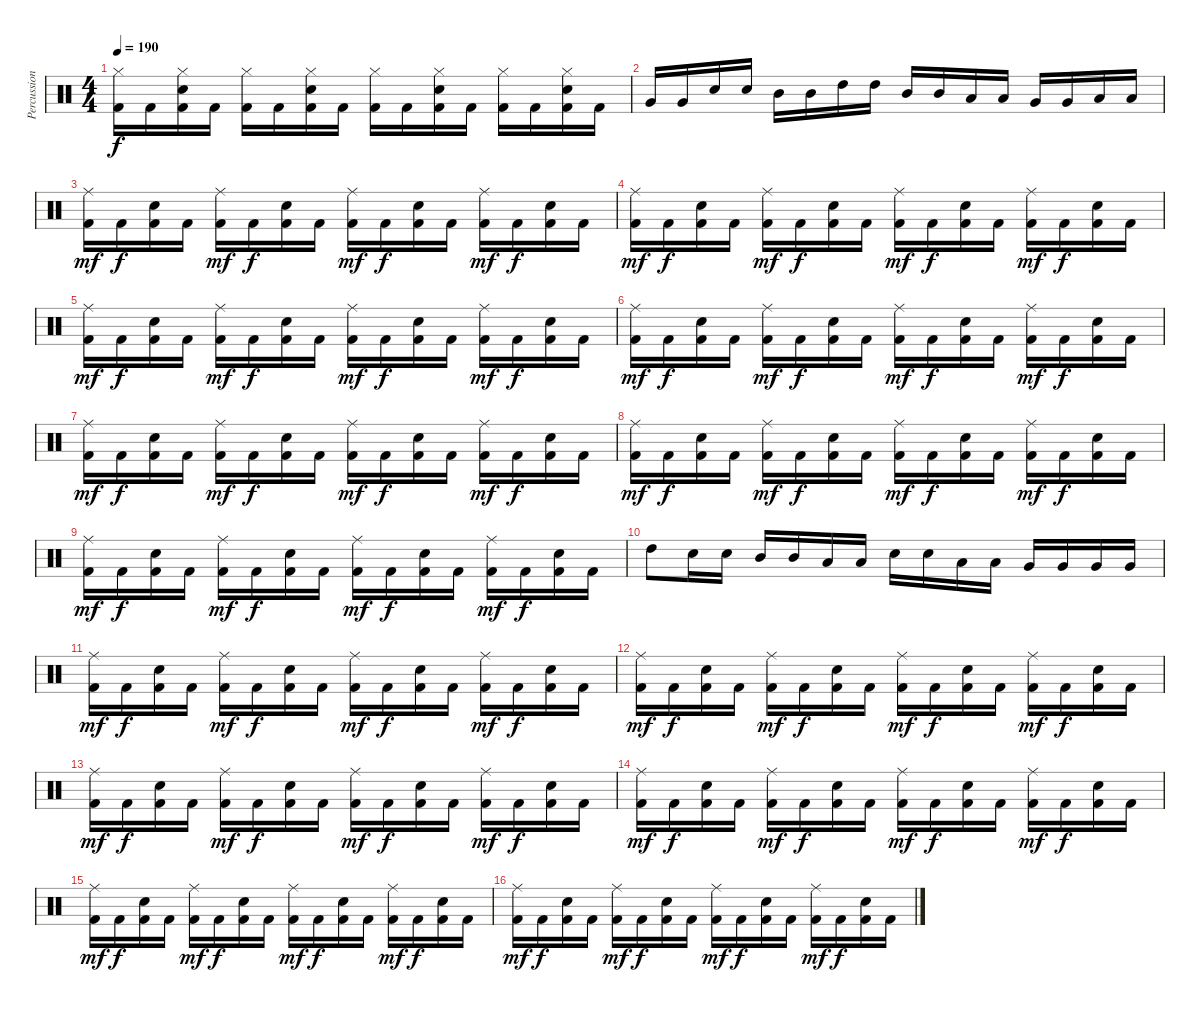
\track ("Percussion" "Percussion") {instrument percussion}
\staff {score}
\articulation defaults
\ts (4 4)
\tempo 190
\clef neutral
\ks c
("Hi-Hat (closed)" "Kick (hit) 2").16{dy f} "Kick (hit) 2".16 ("Hi-Hat (closed)" "Electric Snare (hit)" "Kick (hit) 2").16 "Kick (hit) 2".16 ("Hi-Hat (closed)" "Kick (hit) 2").16 "Kick (hit) 2".16 ("Hi-Hat (closed)" "Electric Snare (hit)" "Kick (hit) 2").16 "Kick (hit) 2".16 ("Hi-Hat (closed)" "Kick (hit) 2").16 "Kick (hit) 2".16 ("Hi-Hat (closed)" "Electric Snare (hit)" "Kick (hit) 2").16 "Kick (hit) 2".16 ("Hi-Hat (closed)" "Kick (hit) 2").16 "Kick (hit) 2".16 ("Hi-Hat (closed)" "Electric Snare (hit)" "Kick (hit) 2").16 "Kick (hit) 2".16 |
"Very Low Tom (hit)".16 "Very Low Tom (hit)".16 "Electric Snare (hit)".16 "Electric Snare (hit)".16 "Mid Tom (hit)".16 "Mid Tom (hit)".16 "High Tom (hit)".16 "High Tom (hit)".16 "Mid Tom (hit)".16 "Mid Tom (hit)".16 "Low Tom (hit)".16 "Low Tom (hit)".16 "Very Low Tom (hit)".16 "Very Low Tom (hit)".16 "Low Floor Tom (hit)".16 "Low Floor Tom (hit)".16 |
("Ride (middle)" "Kick (hit) 2").16{dy mf} "Kick (hit) 2".16{dy f} ("Electric Snare (hit)" "Kick (hit) 2").16 "Kick (hit) 2".16 ("Ride (middle)" "Kick (hit) 2").16{dy mf} "Kick (hit) 2".16{dy f} ("Electric Snare (hit)" "Kick (hit) 2").16 "Kick (hit) 2".16 ("Ride (middle)" "Kick (hit) 2").16{dy mf} "Kick (hit) 2".16{dy f} ("Electric Snare (hit)" "Kick (hit) 2").16 "Kick (hit) 2".16 ("Ride (middle)" "Kick (hit) 2").16{dy mf} "Kick (hit) 2".16{dy f} ("Electric Snare (hit)" "Kick (hit) 2").16 "Kick (hit) 2".16 |
("Ride (middle)" "Kick (hit) 2").16{dy mf} "Kick (hit) 2".16{dy f} ("Electric Snare (hit)" "Kick (hit) 2").16 "Kick (hit) 2".16 ("Ride (middle)" "Kick (hit) 2").16{dy mf} "Kick (hit) 2".16{dy f} ("Electric Snare (hit)" "Kick (hit) 2").16 "Kick (hit) 2".16 ("Ride (middle)" "Kick (hit) 2").16{dy mf} "Kick (hit) 2".16{dy f} ("Electric Snare (hit)" "Kick (hit) 2").16 "Kick (hit) 2".16 ("Ride (middle)" "Kick (hit) 2").16{dy mf} "Kick (hit) 2".16{dy f} ("Electric Snare (hit)" "Kick (hit) 2").16 "Kick (hit) 2".16 |
("Ride (middle)" "Kick (hit) 2").16{dy mf} "Kick (hit) 2".16{dy f} ("Electric Snare (hit)" "Kick (hit) 2").16 "Kick (hit) 2".16 ("Ride (middle)" "Kick (hit) 2").16{dy mf} "Kick (hit) 2".16{dy f} ("Electric Snare (hit)" "Kick (hit) 2").16 "Kick (hit) 2".16 ("Ride (middle)" "Kick (hit) 2").16{dy mf} "Kick (hit) 2".16{dy f} ("Electric Snare (hit)" "Kick (hit) 2").16 "Kick (hit) 2".16 ("Ride (middle)" "Kick (hit) 2").16{dy mf} "Kick (hit) 2".16{dy f} ("Electric Snare (hit)" "Kick (hit) 2").16 "Kick (hit) 2".16 |
("Ride (middle)" "Kick (hit) 2").16{dy mf} "Kick (hit) 2".16{dy f} ("Electric Snare (hit)" "Kick (hit) 2").16 "Kick (hit) 2".16 ("Ride (middle)" "Kick (hit) 2").16{dy mf} "Kick (hit) 2".16{dy f} ("Electric Snare (hit)" "Kick (hit) 2").16 "Kick (hit) 2".16 ("Ride (middle)" "Kick (hit) 2").16{dy mf} "Kick (hit) 2".16{dy f} ("Electric Snare (hit)" "Kick (hit) 2").16 "Kick (hit) 2".16 ("Ride (middle)" "Kick (hit) 2").16{dy mf} "Kick (hit) 2".16{dy f} ("Electric Snare (hit)" "Kick (hit) 2").16 "Kick (hit) 2".16 |
("Ride (middle)" "Kick (hit) 2").16{dy mf} "Kick (hit) 2".16{dy f} ("Electric Snare (hit)" "Kick (hit) 2").16 "Kick (hit) 2".16 ("Ride (middle)" "Kick (hit) 2").16{dy mf} "Kick (hit) 2".16{dy f} ("Electric Snare (hit)" "Kick (hit) 2").16 "Kick (hit) 2".16 ("Ride (middle)" "Kick (hit) 2").16{dy mf} "Kick (hit) 2".16{dy f} ("Electric Snare (hit)" "Kick (hit) 2").16 "Kick (hit) 2".16 ("Ride (middle)" "Kick (hit) 2").16{dy mf} "Kick (hit) 2".16{dy f} ("Electric Snare (hit)" "Kick (hit) 2").16 "Kick (hit) 2".16 |
("Ride (middle)" "Kick (hit) 2").16{dy mf} "Kick (hit) 2".16{dy f} ("Electric Snare (hit)" "Kick (hit) 2").16 "Kick (hit) 2".16 ("Ride (middle)" "Kick (hit) 2").16{dy mf} "Kick (hit) 2".16{dy f} ("Electric Snare (hit)" "Kick (hit) 2").16 "Kick (hit) 2".16 ("Ride (middle)" "Kick (hit) 2").16{dy mf} "Kick (hit) 2".16{dy f} ("Electric Snare (hit)" "Kick (hit) 2").16 "Kick (hit) 2".16 ("Ride (middle)" "Kick (hit) 2").16{dy mf} "Kick (hit) 2".16{dy f} ("Electric Snare (hit)" "Kick (hit) 2").16 "Kick (hit) 2".16 |
("Ride (middle)" "Kick (hit) 2").16{dy mf} "Kick (hit) 2".16{dy f} ("Electric Snare (hit)" "Kick (hit) 2").16 "Kick (hit) 2".16 ("Ride (middle)" "Kick (hit) 2").16{dy mf} "Kick (hit) 2".16{dy f} ("Electric Snare (hit)" "Kick (hit) 2").16 "Kick (hit) 2".16 ("Ride (middle)" "Kick (hit) 2").16{dy mf} "Kick (hit) 2".16{dy f} ("Electric Snare (hit)" "Kick (hit) 2").16 "Kick (hit) 2".16 ("Ride (middle)" "Kick (hit) 2").16{dy mf} "Kick (hit) 2".16{dy f} ("Electric Snare (hit)" "Kick (hit) 2").16 "Kick (hit) 2".16 |
"High Tom (hit)".8 "Electric Snare (hit)".16 "Electric Snare (hit)".16 "Mid Tom (hit)".16 "Mid Tom (hit)".16 "Low Tom (hit)".16 "Low Tom (hit)".16 "Electric Snare (hit)".16 "Electric Snare (hit)".16 "Low Tom (hit)".16 "Low Tom (hit)".16 "Very Low Tom (hit)".16 "Very Low Tom (hit)".16 "Very Low Tom (hit)".16 "Very Low Tom (hit)".16 |
("Ride (middle)" "Kick (hit) 2").16{dy mf} "Kick (hit) 2".16{dy f} ("Electric Snare (hit)" "Kick (hit) 2").16 "Kick (hit) 2".16 ("Ride (middle)" "Kick (hit) 2").16{dy mf} "Kick (hit) 2".16{dy f} ("Electric Snare (hit)" "Kick (hit) 2").16 "Kick (hit) 2".16 ("Ride (middle)" "Kick (hit) 2").16{dy mf} "Kick (hit) 2".16{dy f} ("Electric Snare (hit)" "Kick (hit) 2").16 "Kick (hit) 2".16 ("Ride (middle)" "Kick (hit) 2").16{dy mf} "Kick (hit) 2".16{dy f} ("Electric Snare (hit)" "Kick (hit) 2").16 "Kick (hit) 2".16 |
("Ride (middle)" "Kick (hit) 2").16{dy mf} "Kick (hit) 2".16{dy f} ("Electric Snare (hit)" "Kick (hit) 2").16 "Kick (hit) 2".16 ("Ride (middle)" "Kick (hit) 2").16{dy mf} "Kick (hit) 2".16{dy f} ("Electric Snare (hit)" "Kick (hit) 2").16 "Kick (hit) 2".16 ("Ride (middle)" "Kick (hit) 2").16{dy mf} "Kick (hit) 2".16{dy f} ("Electric Snare (hit)" "Kick (hit) 2").16 "Kick (hit) 2".16 ("Ride (middle)" "Kick (hit) 2").16{dy mf} "Kick (hit) 2".16{dy f} ("Electric Snare (hit)" "Kick (hit) 2").16 "Kick (hit) 2".16 |
("Ride (middle)" "Kick (hit) 2").16{dy mf} "Kick (hit) 2".16{dy f} ("Electric Snare (hit)" "Kick (hit) 2").16 "Kick (hit) 2".16 ("Ride (middle)" "Kick (hit) 2").16{dy mf} "Kick (hit) 2".16{dy f} ("Electric Snare (hit)" "Kick (hit) 2").16 "Kick (hit) 2".16 ("Ride (middle)" "Kick (hit) 2").16{dy mf} "Kick (hit) 2".16{dy f} ("Electric Snare (hit)" "Kick (hit) 2").16 "Kick (hit) 2".16 ("Ride (middle)" "Kick (hit) 2").16{dy mf} "Kick (hit) 2".16{dy f} ("Electric Snare (hit)" "Kick (hit) 2").16 "Kick (hit) 2".16 |
("Ride (middle)" "Kick (hit) 2").16{dy mf} "Kick (hit) 2".16{dy f} ("Electric Snare (hit)" "Kick (hit) 2").16 "Kick (hit) 2".16 ("Ride (middle)" "Kick (hit) 2").16{dy mf} "Kick (hit) 2".16{dy f} ("Electric Snare (hit)" "Kick (hit) 2").16 "Kick (hit) 2".16 ("Ride (middle)" "Kick (hit) 2").16{dy mf} "Kick (hit) 2".16{dy f} ("Electric Snare (hit)" "Kick (hit) 2").16 "Kick (hit) 2".16 ("Ride (middle)" "Kick (hit) 2").16{dy mf} "Kick (hit) 2".16{dy f} ("Electric Snare (hit)" "Kick (hit) 2").16 "Kick (hit) 2".16 |
("Ride (middle)" "Kick (hit) 2").16{dy mf} "Kick (hit) 2".16{dy f} ("Electric Snare (hit)" "Kick (hit) 2").16 "Kick (hit) 2".16 ("Ride (middle)" "Kick (hit) 2").16{dy mf} "Kick (hit) 2".16{dy f} ("Electric Snare (hit)" "Kick (hit) 2").16 "Kick (hit) 2".16 ("Ride (middle)" "Kick (hit) 2").16{dy mf} "Kick (hit) 2".16{dy f} ("Electric Snare (hit)" "Kick (hit) 2").16 "Kick (hit) 2".16 ("Ride (middle)" "Kick (hit) 2").16{dy mf} "Kick (hit) 2".16{dy f} ("Electric Snare (hit)" "Kick (hit) 2").16 "Kick (hit) 2".16 |
("Ride (middle)" "Kick (hit) 2").16{dy mf} "Kick (hit) 2".16{dy f} ("Electric Snare (hit)" "Kick (hit) 2").16 "Kick (hit) 2".16 ("Ride (middle)" "Kick (hit) 2").16{dy mf} "Kick (hit) 2".16{dy f} ("Electric Snare (hit)" "Kick (hit) 2").16 "Kick (hit) 2".16 ("Ride (middle)" "Kick (hit) 2").16{dy mf} "Kick (hit) 2".16{dy f} ("Electric Snare (hit)" "Kick (hit) 2").16 "Kick (hit) 2".16 ("Ride (middle)" "Kick (hit) 2").16{dy mf} "Kick (hit) 2".16{dy f} ("Electric Snare (hit)" "Kick (hit) 2").16 "Kick (hit) 2".16
